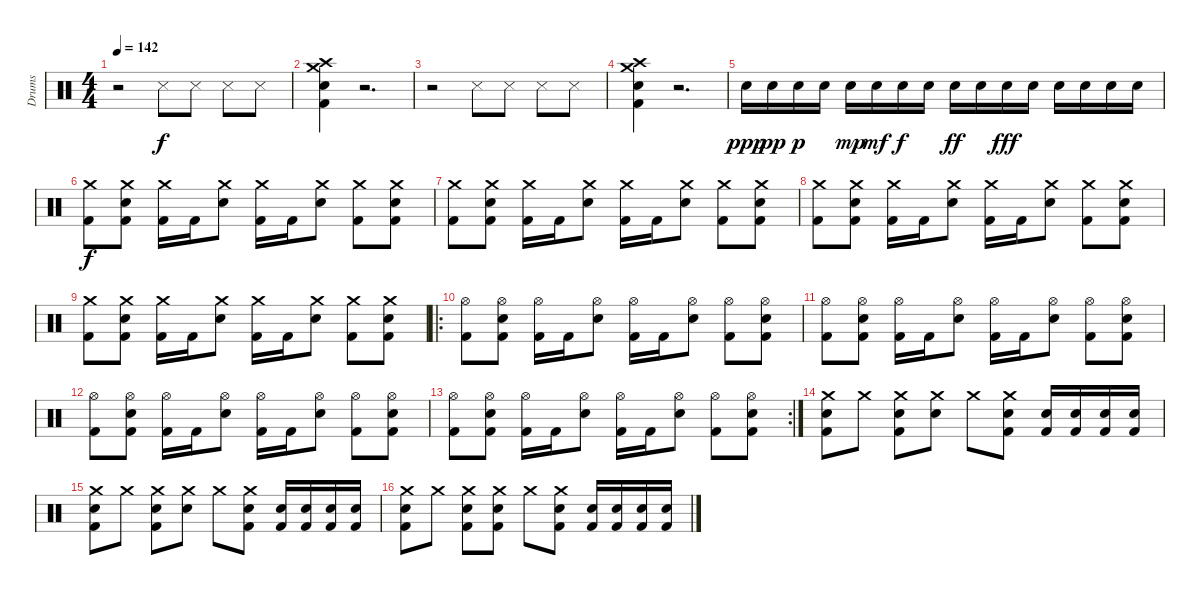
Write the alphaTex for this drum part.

\track ("Drums" "Drums") {instrument percussion}
\staff {score}
\articulation defaults
\ts (4 4)
\tempo 142
\clef neutral
\ks c
r.2{dy f} "Snare (side stick) 3".8 "Snare (side stick) 3".8 "Snare (side stick) 3".8 "Snare (side stick) 3".8 |
("Crash medium (hit)" "Crash high (hit)" "Snare (hit) 2" "Kick (hit) 2").4 r.2{d} |
r.2 "Snare (side stick) 3".8 "Snare (side stick) 3".8 "Snare (side stick) 3".8 "Snare (side stick) 3".8 |
("Crash medium (hit)" "Crash high (hit)" "Snare (hit) 2" "Kick (hit) 2").4 r.2{d} |
"Snare (hit) 2".16{dy ppp} "Snare (hit) 2".16{dy pp} "Snare (hit) 2".16{dy p} "Snare (hit) 2".16 "Snare (hit) 2".16{dy mp} "Snare (hit) 2".16{dy mf} "Snare (hit) 2".16{dy f} "Snare (hit) 2".16 "Snare (hit) 2".16{dy ff} "Snare (hit) 2".16 "Snare (hit) 2".16{dy fff} "Snare (hit) 2".16 "Snare (hit) 2".16 "Snare (hit) 2".16 "Snare (hit) 2".16 "Snare (hit) 2".16 |
("Crash medium (hit)" "Kick (hit) 2").8{dy f} ("Crash medium (hit)" "Snare (hit) 2" "Kick (hit) 2").8 ("Crash medium (hit)" "Kick (hit) 2").16 "Kick (hit) 2".16 ("Crash medium (hit)" "Snare (hit) 2").8 ("Crash medium (hit)" "Kick (hit) 2").16 "Kick (hit) 2".16 ("Crash medium (hit)" "Snare (hit) 2").8 ("Crash medium (hit)" "Kick (hit) 2").8 ("Crash medium (hit)" "Snare (hit) 2" "Kick (hit) 2").8 |
("Crash medium (hit)" "Kick (hit) 2").8 ("Crash medium (hit)" "Snare (hit) 2" "Kick (hit) 2").8 ("Crash medium (hit)" "Kick (hit) 2").16 "Kick (hit) 2".16 ("Crash medium (hit)" "Snare (hit) 2").8 ("Crash medium (hit)" "Kick (hit) 2").16 "Kick (hit) 2".16 ("Crash medium (hit)" "Snare (hit) 2").8 ("Crash medium (hit)" "Kick (hit) 2").8 ("Crash medium (hit)" "Snare (hit) 2" "Kick (hit) 2").8 |
("Crash medium (hit)" "Kick (hit) 2").8 ("Crash medium (hit)" "Snare (hit) 2" "Kick (hit) 2").8 ("Crash medium (hit)" "Kick (hit) 2").16 "Kick (hit) 2".16 ("Crash medium (hit)" "Snare (hit) 2").8 ("Crash medium (hit)" "Kick (hit) 2").16 "Kick (hit) 2".16 ("Crash medium (hit)" "Snare (hit) 2").8 ("Crash medium (hit)" "Kick (hit) 2").8 ("Crash medium (hit)" "Snare (hit) 2" "Kick (hit) 2").8 |
("Crash medium (hit)" "Kick (hit) 2").8 ("Crash medium (hit)" "Snare (hit) 2" "Kick (hit) 2").8 ("Crash medium (hit)" "Kick (hit) 2").16 "Kick (hit) 2".16 ("Crash medium (hit)" "Snare (hit) 2").8 ("Crash medium (hit)" "Kick (hit) 2").16 "Kick (hit) 2".16 ("Crash medium (hit)" "Snare (hit) 2").8 ("Crash medium (hit)" "Kick (hit) 2").8 ("Crash medium (hit)" "Snare (hit) 2" "Kick (hit) 2").8 |
\ro
("Hi-Hat (open)" "Kick (hit) 2").8 ("Hi-Hat (open)" "Snare (hit) 2" "Kick (hit) 2").8 ("Hi-Hat (open)" "Kick (hit) 2").16 "Kick (hit) 2".16 ("Hi-Hat (open)" "Snare (hit) 2").8 ("Hi-Hat (open)" "Kick (hit) 2").16 "Kick (hit) 2".16 ("Hi-Hat (open)" "Snare (hit) 2").8 ("Hi-Hat (open)" "Kick (hit) 2").8 ("Hi-Hat (open)" "Snare (hit) 2" "Kick (hit) 2").8 |
("Hi-Hat (open)" "Kick (hit) 2").8 ("Hi-Hat (open)" "Snare (hit) 2" "Kick (hit) 2").8 ("Hi-Hat (open)" "Kick (hit) 2").16 "Kick (hit) 2".16 ("Hi-Hat (open)" "Snare (hit) 2").8 ("Hi-Hat (open)" "Kick (hit) 2").16 "Kick (hit) 2".16 ("Hi-Hat (open)" "Snare (hit) 2").8 ("Hi-Hat (open)" "Kick (hit) 2").8 ("Hi-Hat (open)" "Snare (hit) 2" "Kick (hit) 2").8 |
("Hi-Hat (open)" "Kick (hit) 2").8 ("Hi-Hat (open)" "Snare (hit) 2" "Kick (hit) 2").8 ("Hi-Hat (open)" "Kick (hit) 2").16 "Kick (hit) 2".16 ("Hi-Hat (open)" "Snare (hit) 2").8 ("Hi-Hat (open)" "Kick (hit) 2").16 "Kick (hit) 2".16 ("Hi-Hat (open)" "Snare (hit) 2").8 ("Hi-Hat (open)" "Kick (hit) 2").8 ("Hi-Hat (open)" "Snare (hit) 2" "Kick (hit) 2").8 |
\rc 2
("Hi-Hat (open)" "Kick (hit) 2").8 ("Hi-Hat (open)" "Snare (hit) 2" "Kick (hit) 2").8 ("Hi-Hat (open)" "Kick (hit) 2").16 "Kick (hit) 2".16 ("Hi-Hat (open)" "Snare (hit) 2").8 ("Hi-Hat (open)" "Kick (hit) 2").16 "Kick (hit) 2".16 ("Hi-Hat (open)" "Snare (hit) 2").8 ("Hi-Hat (open)" "Kick (hit) 2").8 ("Hi-Hat (open)" "Snare (hit) 2" "Kick (hit) 2").8 |
("Crash medium (hit)" "Snare (hit) 2" "Kick (hit) 2").8 "Crash medium (hit)".8 ("Crash medium (hit)" "Snare (hit) 2" "Kick (hit) 2").8 ("Crash medium (hit)" "Snare (hit) 2").8 "Crash medium (hit)".8 ("Crash medium (hit)" "Snare (hit) 2" "Kick (hit) 2").8 ("Snare (hit) 2" "Kick (hit) 2").16 ("Snare (hit) 2" "Kick (hit) 2").16 ("Snare (hit) 2" "Kick (hit) 2").16 ("Snare (hit) 2" "Kick (hit) 2").16 |
("Crash medium (hit)" "Snare (hit) 2" "Kick (hit) 2").8 "Crash medium (hit)".8 ("Crash medium (hit)" "Snare (hit) 2" "Kick (hit) 2").8 ("Crash medium (hit)" "Snare (hit) 2").8 "Crash medium (hit)".8 ("Crash medium (hit)" "Snare (hit) 2" "Kick (hit) 2").8 ("Snare (hit) 2" "Kick (hit) 2").16 ("Snare (hit) 2" "Kick (hit) 2").16 ("Snare (hit) 2" "Kick (hit) 2").16 ("Snare (hit) 2" "Kick (hit) 2").16 |
("Crash medium (hit)" "Snare (hit) 2" "Kick (hit) 2").8 "Crash medium (hit)".8 ("Crash medium (hit)" "Snare (hit) 2" "Kick (hit) 2").8 ("Crash medium (hit)" "Snare (hit) 2" "Kick (hit) 2").8 "Crash medium (hit)".8 ("Crash medium (hit)" "Snare (hit) 2" "Kick (hit) 2").8 ("Snare (hit) 2" "Kick (hit) 2").16 ("Snare (hit) 2" "Kick (hit) 2").16 ("Snare (hit) 2" "Kick (hit) 2").16 ("Snare (hit) 2" "Kick (hit) 2").16
